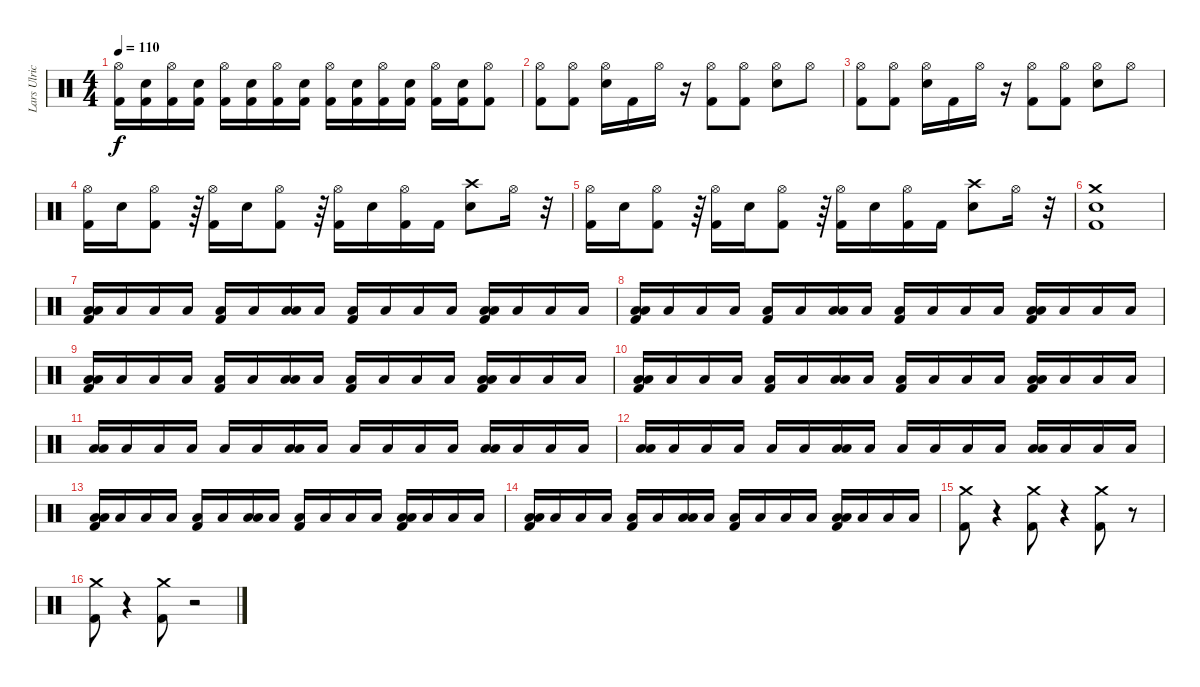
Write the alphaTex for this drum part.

\track ("Lars Ulrich" "Lars Ulric") {instrument percussion}
\staff {score}
\articulation defaults
\ts (4 4)
\tempo 110
\clef neutral
\ks c
("Hi-Hat (open)" "Kick (hit) 2").16{dy f} ("Electric Snare (hit)" "Kick (hit) 2").16 ("Hi-Hat (open)" "Kick (hit) 2").16 ("Electric Snare (hit)" "Kick (hit) 2").16 ("Hi-Hat (open)" "Kick (hit) 2").16 ("Electric Snare (hit)" "Kick (hit) 2").16 ("Hi-Hat (open)" "Kick (hit) 2").16 ("Electric Snare (hit)" "Kick (hit) 2").16 ("Hi-Hat (open)" "Kick (hit) 2").16 ("Electric Snare (hit)" "Kick (hit) 2").16 ("Hi-Hat (open)" "Kick (hit) 2").16 ("Electric Snare (hit)" "Kick (hit) 2").16 ("Hi-Hat (open)" "Kick (hit) 2").16 ("Electric Snare (hit)" "Kick (hit) 2").16 ("Hi-Hat (open)" "Kick (hit) 2").8 |
("Hi-Hat (open)" "Kick (hit) 2").8 ("Hi-Hat (open)" "Kick (hit) 2").8 ("Hi-Hat (open)" "Electric Snare (hit)").16 "Kick (hit) 2".16 "Hi-Hat (open)".16 r.16 ("Hi-Hat (open)" "Kick (hit) 2").8 ("Hi-Hat (open)" "Kick (hit) 2").8 ("Hi-Hat (open)" "Electric Snare (hit)").8 "Hi-Hat (open)".8 |
("Hi-Hat (open)" "Kick (hit) 2").8 ("Hi-Hat (open)" "Kick (hit) 2").8 ("Hi-Hat (open)" "Electric Snare (hit)").16 "Kick (hit) 2".16 "Hi-Hat (open)".16 r.16 ("Hi-Hat (open)" "Kick (hit) 2").8 ("Hi-Hat (open)" "Kick (hit) 2").8 ("Hi-Hat (open)" "Electric Snare (hit)").8 "Hi-Hat (open)".8 |
("Hi-Hat (open)" "Kick (hit) 2").16 "Electric Snare (hit)".16 ("Hi-Hat (open)" "Kick (hit) 2").8 r.64 ("Hi-Hat (open)" "Kick (hit) 2").16 "Electric Snare (hit)".16 ("Hi-Hat (open)" "Kick (hit) 2").8 r.64 ("Hi-Hat (open)" "Kick (hit) 2").16 "Electric Snare (hit)".16 ("Hi-Hat (open)" "Kick (hit) 2").16 "Kick (hit) 2".16 ("Crash high (hit)" "Electric Snare (hit)").8 "Hi-Hat (open)".16 r.32 |
("Hi-Hat (open)" "Kick (hit) 2").16 "Electric Snare (hit)".16 ("Hi-Hat (open)" "Kick (hit) 2").8 r.64 ("Hi-Hat (open)" "Kick (hit) 2").16 "Electric Snare (hit)".16 ("Hi-Hat (open)" "Kick (hit) 2").8 r.64 ("Hi-Hat (open)" "Kick (hit) 2").16 "Electric Snare (hit)".16 ("Hi-Hat (open)" "Kick (hit) 2").16 "Kick (hit) 2".16 ("Crash high (hit)" "Electric Snare (hit)").8 "Hi-Hat (open)".16 r.32 |
("Crash medium (hit)" "Electric Snare (hit)" "Kick (hit) 2").1 |
("Low Tom (hit)" "Low Floor Tom (hit)" "Kick (hit) 2").16 "Low Floor Tom (hit)".16 "Low Floor Tom (hit)".16 "Low Floor Tom (hit)".16 ("Low Floor Tom (hit)" "Kick (hit) 2").16 "Low Floor Tom (hit)".16 ("Low Tom (hit)" "Low Floor Tom (hit)").16 "Low Floor Tom (hit)".16 ("Low Floor Tom (hit)" "Kick (hit) 2").16 "Low Floor Tom (hit)".16 "Low Floor Tom (hit)".16 "Low Floor Tom (hit)".16 ("Low Tom (hit)" "Low Floor Tom (hit)" "Kick (hit) 2").16 "Low Floor Tom (hit)".16 "Low Floor Tom (hit)".16 "Low Floor Tom (hit)".16 |
("Low Tom (hit)" "Low Floor Tom (hit)" "Kick (hit) 2").16 "Low Floor Tom (hit)".16 "Low Floor Tom (hit)".16 "Low Floor Tom (hit)".16 ("Low Floor Tom (hit)" "Kick (hit) 2").16 "Low Floor Tom (hit)".16 ("Low Tom (hit)" "Low Floor Tom (hit)").16 "Low Floor Tom (hit)".16 ("Low Floor Tom (hit)" "Kick (hit) 2").16 "Low Floor Tom (hit)".16 "Low Floor Tom (hit)".16 "Low Floor Tom (hit)".16 ("Low Tom (hit)" "Low Floor Tom (hit)" "Kick (hit) 2").16 "Low Floor Tom (hit)".16 "Low Floor Tom (hit)".16 "Low Floor Tom (hit)".16 |
("Low Tom (hit)" "Low Floor Tom (hit)" "Kick (hit) 2").16 "Low Floor Tom (hit)".16 "Low Floor Tom (hit)".16 "Low Floor Tom (hit)".16 ("Low Floor Tom (hit)" "Kick (hit) 2").16 "Low Floor Tom (hit)".16 ("Low Tom (hit)" "Low Floor Tom (hit)").16 "Low Floor Tom (hit)".16 ("Low Floor Tom (hit)" "Kick (hit) 2").16 "Low Floor Tom (hit)".16 "Low Floor Tom (hit)".16 "Low Floor Tom (hit)".16 ("Low Tom (hit)" "Low Floor Tom (hit)" "Kick (hit) 2").16 "Low Floor Tom (hit)".16 "Low Floor Tom (hit)".16 "Low Floor Tom (hit)".16 |
("Low Tom (hit)" "Low Floor Tom (hit)" "Kick (hit) 2").16 "Low Floor Tom (hit)".16 "Low Floor Tom (hit)".16 "Low Floor Tom (hit)".16 ("Low Floor Tom (hit)" "Kick (hit) 2").16 "Low Floor Tom (hit)".16 ("Low Tom (hit)" "Low Floor Tom (hit)").16 "Low Floor Tom (hit)".16 ("Low Floor Tom (hit)" "Kick (hit) 2").16 "Low Floor Tom (hit)".16 "Low Floor Tom (hit)".16 "Low Floor Tom (hit)".16 ("Low Tom (hit)" "Low Floor Tom (hit)" "Kick (hit) 2").16 "Low Floor Tom (hit)".16 "Low Floor Tom (hit)".16 "Low Floor Tom (hit)".16 |
("Low Tom (hit)" "Low Floor Tom (hit)").16 "Low Floor Tom (hit)".16 "Low Floor Tom (hit)".16 "Low Floor Tom (hit)".16 "Low Floor Tom (hit)".16 "Low Floor Tom (hit)".16 ("Low Tom (hit)" "Low Floor Tom (hit)").16 "Low Floor Tom (hit)".16 "Low Floor Tom (hit)".16 "Low Floor Tom (hit)".16 "Low Floor Tom (hit)".16 "Low Floor Tom (hit)".16 ("Low Tom (hit)" "Low Floor Tom (hit)").16 "Low Floor Tom (hit)".16 "Low Floor Tom (hit)".16 "Low Floor Tom (hit)".16 |
("Low Tom (hit)" "Low Floor Tom (hit)").16 "Low Floor Tom (hit)".16 "Low Floor Tom (hit)".16 "Low Floor Tom (hit)".16 "Low Floor Tom (hit)".16 "Low Floor Tom (hit)".16 ("Low Tom (hit)" "Low Floor Tom (hit)").16 "Low Floor Tom (hit)".16 "Low Floor Tom (hit)".16 "Low Floor Tom (hit)".16 "Low Floor Tom (hit)".16 "Low Floor Tom (hit)".16 ("Low Tom (hit)" "Low Floor Tom (hit)").16 "Low Floor Tom (hit)".16 "Low Floor Tom (hit)".16 "Low Floor Tom (hit)".16 |
("Low Tom (hit)" "Low Floor Tom (hit)" "Kick (hit) 2").16 "Low Floor Tom (hit)".16 "Low Floor Tom (hit)".16 "Low Floor Tom (hit)".16 ("Low Floor Tom (hit)" "Kick (hit) 2").16 "Low Floor Tom (hit)".16 ("Low Tom (hit)" "Low Floor Tom (hit)").16 "Low Floor Tom (hit)".16 ("Low Floor Tom (hit)" "Kick (hit) 2").16 "Low Floor Tom (hit)".16 "Low Floor Tom (hit)".16 "Low Floor Tom (hit)".16 ("Low Tom (hit)" "Low Floor Tom (hit)" "Kick (hit) 2").16 "Low Floor Tom (hit)".16 "Low Floor Tom (hit)".16 "Low Floor Tom (hit)".16 |
("Low Tom (hit)" "Low Floor Tom (hit)" "Kick (hit) 2").16 "Low Floor Tom (hit)".16 "Low Floor Tom (hit)".16 "Low Floor Tom (hit)".16 ("Low Floor Tom (hit)" "Kick (hit) 2").16 "Low Floor Tom (hit)".16 ("Low Tom (hit)" "Low Floor Tom (hit)").16 "Low Floor Tom (hit)".16 ("Low Floor Tom (hit)" "Kick (hit) 2").16 "Low Floor Tom (hit)".16 "Low Floor Tom (hit)".16 "Low Floor Tom (hit)".16 ("Low Tom (hit)" "Low Floor Tom (hit)" "Kick (hit) 2").16 "Low Floor Tom (hit)".16 "Low Floor Tom (hit)".16 "Low Floor Tom (hit)".16 |
("Crash medium (hit)" "Kick (hit) 2").8 r.4 ("Crash medium (hit)" "Kick (hit) 2").8 r.4 ("Crash medium (hit)" "Kick (hit) 2").8 r.8 |
("Crash medium (hit)" "Kick (hit) 2").8 r.4 ("Crash medium (hit)" "Kick (hit) 2").8 r.2
